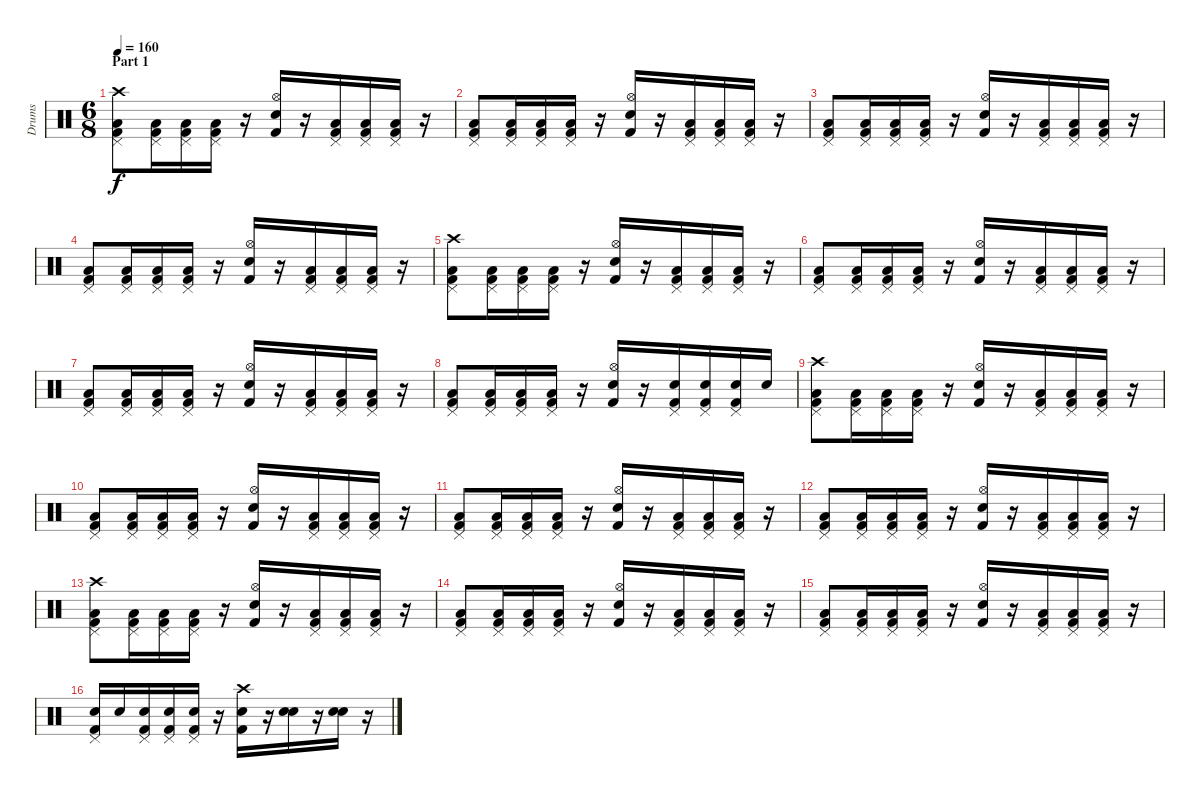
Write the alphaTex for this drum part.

\track ("Drums" "Drums") {instrument percussion}
\staff {score}
\articulation defaults
\ts (6 8)
\section ("" "Part 1")
\tempo 160
\clef neutral
\ks c
("Crash high (hit)" "Pedal Hi-Hat (hit)" "Low Floor Tom (hit)" "Kick (hit) 2").8{dy f} ("Pedal Hi-Hat (hit)" "Low Floor Tom (hit)" "Kick (hit) 2").16 ("Pedal Hi-Hat (hit)" "Low Floor Tom (hit)" "Kick (hit) 2").16 ("Pedal Hi-Hat (hit)" "Low Floor Tom (hit)" "Kick (hit) 2").16 r.16 ("Hi-Hat (open)" "Snare (hit) 2" "Kick (hit) 2").16 r.16 ("Pedal Hi-Hat (hit)" "Low Floor Tom (hit)" "Kick (hit) 2").16 ("Pedal Hi-Hat (hit)" "Low Floor Tom (hit)" "Kick (hit) 2").16 ("Pedal Hi-Hat (hit)" "Low Floor Tom (hit)" "Kick (hit) 2").16 r.16 |
("Pedal Hi-Hat (hit)" "Low Floor Tom (hit)" "Kick (hit) 2").8 ("Pedal Hi-Hat (hit)" "Low Floor Tom (hit)" "Kick (hit) 2").16 ("Pedal Hi-Hat (hit)" "Low Floor Tom (hit)" "Kick (hit) 2").16 ("Pedal Hi-Hat (hit)" "Low Floor Tom (hit)" "Kick (hit) 2").16 r.16 ("Hi-Hat (open)" "Snare (hit) 2" "Kick (hit) 2").16 r.16 ("Pedal Hi-Hat (hit)" "Low Floor Tom (hit)" "Kick (hit) 2").16 ("Pedal Hi-Hat (hit)" "Low Floor Tom (hit)" "Kick (hit) 2").16 ("Pedal Hi-Hat (hit)" "Low Floor Tom (hit)" "Kick (hit) 2").16 r.16 |
("Pedal Hi-Hat (hit)" "Low Floor Tom (hit)" "Kick (hit) 2").8 ("Pedal Hi-Hat (hit)" "Low Floor Tom (hit)" "Kick (hit) 2").16 ("Pedal Hi-Hat (hit)" "Low Floor Tom (hit)" "Kick (hit) 2").16 ("Pedal Hi-Hat (hit)" "Low Floor Tom (hit)" "Kick (hit) 2").16 r.16 ("Hi-Hat (open)" "Snare (hit) 2" "Kick (hit) 2").16 r.16 ("Pedal Hi-Hat (hit)" "Low Floor Tom (hit)" "Kick (hit) 2").16 ("Pedal Hi-Hat (hit)" "Low Floor Tom (hit)" "Kick (hit) 2").16 ("Pedal Hi-Hat (hit)" "Low Floor Tom (hit)" "Kick (hit) 2").16 r.16 |
("Pedal Hi-Hat (hit)" "Low Floor Tom (hit)" "Kick (hit) 2").8 ("Pedal Hi-Hat (hit)" "Low Floor Tom (hit)" "Kick (hit) 2").16 ("Pedal Hi-Hat (hit)" "Low Floor Tom (hit)" "Kick (hit) 2").16 ("Pedal Hi-Hat (hit)" "Low Floor Tom (hit)" "Kick (hit) 2").16 r.16 ("Hi-Hat (open)" "Snare (hit) 2" "Kick (hit) 2").16 r.16 ("Pedal Hi-Hat (hit)" "Low Floor Tom (hit)" "Kick (hit) 2").16 ("Pedal Hi-Hat (hit)" "Low Floor Tom (hit)" "Kick (hit) 2").16 ("Pedal Hi-Hat (hit)" "Low Floor Tom (hit)" "Kick (hit) 2").16 r.16 |
("Crash high (hit)" "Pedal Hi-Hat (hit)" "Low Floor Tom (hit)" "Kick (hit) 2").8 ("Pedal Hi-Hat (hit)" "Low Floor Tom (hit)" "Kick (hit) 2").16 ("Pedal Hi-Hat (hit)" "Low Floor Tom (hit)" "Kick (hit) 2").16 ("Pedal Hi-Hat (hit)" "Low Floor Tom (hit)" "Kick (hit) 2").16 r.16 ("Hi-Hat (open)" "Snare (hit) 2" "Kick (hit) 2").16 r.16 ("Pedal Hi-Hat (hit)" "Low Floor Tom (hit)" "Kick (hit) 2").16 ("Pedal Hi-Hat (hit)" "Low Floor Tom (hit)" "Kick (hit) 2").16 ("Pedal Hi-Hat (hit)" "Low Floor Tom (hit)" "Kick (hit) 2").16 r.16 |
("Pedal Hi-Hat (hit)" "Low Floor Tom (hit)" "Kick (hit) 2").8 ("Pedal Hi-Hat (hit)" "Low Floor Tom (hit)" "Kick (hit) 2").16 ("Pedal Hi-Hat (hit)" "Low Floor Tom (hit)" "Kick (hit) 2").16 ("Pedal Hi-Hat (hit)" "Low Floor Tom (hit)" "Kick (hit) 2").16 r.16 ("Hi-Hat (open)" "Snare (hit) 2" "Kick (hit) 2").16 r.16 ("Pedal Hi-Hat (hit)" "Low Floor Tom (hit)" "Kick (hit) 2").16 ("Pedal Hi-Hat (hit)" "Low Floor Tom (hit)" "Kick (hit) 2").16 ("Pedal Hi-Hat (hit)" "Low Floor Tom (hit)" "Kick (hit) 2").16 r.16 |
("Pedal Hi-Hat (hit)" "Low Floor Tom (hit)" "Kick (hit) 2").8 ("Pedal Hi-Hat (hit)" "Low Floor Tom (hit)" "Kick (hit) 2").16 ("Pedal Hi-Hat (hit)" "Low Floor Tom (hit)" "Kick (hit) 2").16 ("Pedal Hi-Hat (hit)" "Low Floor Tom (hit)" "Kick (hit) 2").16 r.16 ("Hi-Hat (open)" "Snare (hit) 2" "Kick (hit) 2").16 r.16 ("Pedal Hi-Hat (hit)" "Low Floor Tom (hit)" "Kick (hit) 2").16 ("Pedal Hi-Hat (hit)" "Low Floor Tom (hit)" "Kick (hit) 2").16 ("Pedal Hi-Hat (hit)" "Low Floor Tom (hit)" "Kick (hit) 2").16 r.16 |
("Pedal Hi-Hat (hit)" "Low Floor Tom (hit)" "Kick (hit) 2").8 ("Pedal Hi-Hat (hit)" "Low Floor Tom (hit)" "Kick (hit) 2").16 ("Pedal Hi-Hat (hit)" "Low Floor Tom (hit)" "Kick (hit) 2").16 ("Pedal Hi-Hat (hit)" "Low Floor Tom (hit)" "Kick (hit) 2").16 r.16 ("Hi-Hat (open)" "Snare (hit) 2" "Kick (hit) 2").16 r.16 ("Pedal Hi-Hat (hit)" "Snare (hit) 2" "Kick (hit) 2").16 ("Pedal Hi-Hat (hit)" "Snare (hit) 2" "Kick (hit) 2").16 ("Pedal Hi-Hat (hit)" "Snare (hit) 2" "Kick (hit) 2").16 "Snare (hit) 2".16 |
("Crash high (hit)" "Pedal Hi-Hat (hit)" "Low Floor Tom (hit)" "Kick (hit) 2").8 ("Pedal Hi-Hat (hit)" "Low Floor Tom (hit)" "Kick (hit) 2").16 ("Pedal Hi-Hat (hit)" "Low Floor Tom (hit)" "Kick (hit) 2").16 ("Pedal Hi-Hat (hit)" "Low Floor Tom (hit)" "Kick (hit) 2").16 r.16 ("Hi-Hat (open)" "Snare (hit) 2" "Kick (hit) 2").16 r.16 ("Pedal Hi-Hat (hit)" "Low Floor Tom (hit)" "Kick (hit) 2").16 ("Pedal Hi-Hat (hit)" "Low Floor Tom (hit)" "Kick (hit) 2").16 ("Pedal Hi-Hat (hit)" "Low Floor Tom (hit)" "Kick (hit) 2").16 r.16 |
("Pedal Hi-Hat (hit)" "Low Floor Tom (hit)" "Kick (hit) 2").8 ("Pedal Hi-Hat (hit)" "Low Floor Tom (hit)" "Kick (hit) 2").16 ("Pedal Hi-Hat (hit)" "Low Floor Tom (hit)" "Kick (hit) 2").16 ("Pedal Hi-Hat (hit)" "Low Floor Tom (hit)" "Kick (hit) 2").16 r.16 ("Hi-Hat (open)" "Snare (hit) 2" "Kick (hit) 2").16 r.16 ("Pedal Hi-Hat (hit)" "Low Floor Tom (hit)" "Kick (hit) 2").16 ("Pedal Hi-Hat (hit)" "Low Floor Tom (hit)" "Kick (hit) 2").16 ("Pedal Hi-Hat (hit)" "Low Floor Tom (hit)" "Kick (hit) 2").16 r.16 |
("Pedal Hi-Hat (hit)" "Low Floor Tom (hit)" "Kick (hit) 2").8 ("Pedal Hi-Hat (hit)" "Low Floor Tom (hit)" "Kick (hit) 2").16 ("Pedal Hi-Hat (hit)" "Low Floor Tom (hit)" "Kick (hit) 2").16 ("Pedal Hi-Hat (hit)" "Low Floor Tom (hit)" "Kick (hit) 2").16 r.16 ("Hi-Hat (open)" "Snare (hit) 2" "Kick (hit) 2").16 r.16 ("Pedal Hi-Hat (hit)" "Low Floor Tom (hit)" "Kick (hit) 2").16 ("Pedal Hi-Hat (hit)" "Low Floor Tom (hit)" "Kick (hit) 2").16 ("Pedal Hi-Hat (hit)" "Low Floor Tom (hit)" "Kick (hit) 2").16 r.16 |
("Pedal Hi-Hat (hit)" "Low Floor Tom (hit)" "Kick (hit) 2").8 ("Pedal Hi-Hat (hit)" "Low Floor Tom (hit)" "Kick (hit) 2").16 ("Pedal Hi-Hat (hit)" "Low Floor Tom (hit)" "Kick (hit) 2").16 ("Pedal Hi-Hat (hit)" "Low Floor Tom (hit)" "Kick (hit) 2").16 r.16 ("Hi-Hat (open)" "Snare (hit) 2" "Kick (hit) 2").16 r.16 ("Pedal Hi-Hat (hit)" "Low Floor Tom (hit)" "Kick (hit) 2").16 ("Pedal Hi-Hat (hit)" "Low Floor Tom (hit)" "Kick (hit) 2").16 ("Pedal Hi-Hat (hit)" "Low Floor Tom (hit)" "Kick (hit) 2").16 r.16 |
("Crash high (hit)" "Pedal Hi-Hat (hit)" "Low Floor Tom (hit)" "Kick (hit) 2").8 ("Pedal Hi-Hat (hit)" "Low Floor Tom (hit)" "Kick (hit) 2").16 ("Pedal Hi-Hat (hit)" "Low Floor Tom (hit)" "Kick (hit) 2").16 ("Pedal Hi-Hat (hit)" "Low Floor Tom (hit)" "Kick (hit) 2").16 r.16 ("Hi-Hat (open)" "Snare (hit) 2" "Kick (hit) 2").16 r.16 ("Pedal Hi-Hat (hit)" "Low Floor Tom (hit)" "Kick (hit) 2").16 ("Pedal Hi-Hat (hit)" "Low Floor Tom (hit)" "Kick (hit) 2").16 ("Pedal Hi-Hat (hit)" "Low Floor Tom (hit)" "Kick (hit) 2").16 r.16 |
("Pedal Hi-Hat (hit)" "Low Floor Tom (hit)" "Kick (hit) 2").8 ("Pedal Hi-Hat (hit)" "Low Floor Tom (hit)" "Kick (hit) 2").16 ("Pedal Hi-Hat (hit)" "Low Floor Tom (hit)" "Kick (hit) 2").16 ("Pedal Hi-Hat (hit)" "Low Floor Tom (hit)" "Kick (hit) 2").16 r.16 ("Hi-Hat (open)" "Snare (hit) 2" "Kick (hit) 2").16 r.16 ("Pedal Hi-Hat (hit)" "Low Floor Tom (hit)" "Kick (hit) 2").16 ("Pedal Hi-Hat (hit)" "Low Floor Tom (hit)" "Kick (hit) 2").16 ("Pedal Hi-Hat (hit)" "Low Floor Tom (hit)" "Kick (hit) 2").16 r.16 |
("Pedal Hi-Hat (hit)" "Low Floor Tom (hit)" "Kick (hit) 2").8 ("Pedal Hi-Hat (hit)" "Low Floor Tom (hit)" "Kick (hit) 2").16 ("Pedal Hi-Hat (hit)" "Low Floor Tom (hit)" "Kick (hit) 2").16 ("Pedal Hi-Hat (hit)" "Low Floor Tom (hit)" "Kick (hit) 2").16 r.16 ("Hi-Hat (open)" "Snare (hit) 2" "Kick (hit) 2").16 r.16 ("Pedal Hi-Hat (hit)" "Low Floor Tom (hit)" "Kick (hit) 2").16 ("Pedal Hi-Hat (hit)" "Low Floor Tom (hit)" "Kick (hit) 2").16 ("Pedal Hi-Hat (hit)" "Low Floor Tom (hit)" "Kick (hit) 2").16 r.16 |
("Pedal Hi-Hat (hit)" "Electric Snare (hit)" "Kick (hit) 2").16 "Electric Snare (hit)".16 ("Pedal Hi-Hat (hit)" "Electric Snare (hit)" "Kick (hit) 2").16 ("Pedal Hi-Hat (hit)" "Electric Snare (hit)" "Kick (hit) 2").16 ("Pedal Hi-Hat (hit)" "Electric Snare (hit)" "Kick (hit) 2").16 r.16 ("Crash high (hit)" "Snare (hit) 2" "Kick (hit) 2").16 r.16 ("Snare (hit) 2" "Snare (hit) 2").16 r.16 ("Snare (hit) 2" "Snare (hit) 2").16 r.16
